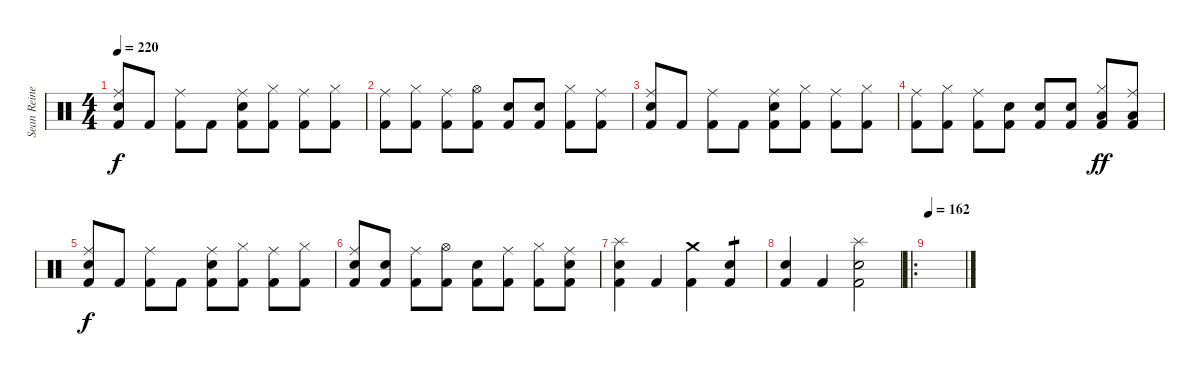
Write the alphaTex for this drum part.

\track ("Sean Reinert" "Sean Reine") {instrument percussion}
\staff {score}
\articulation defaults
\ts (4 4)
\tempo 220
\clef neutral
\ks c
("Kick (hit) 2" "Ride (middle)" "Electric Snare (hit)").8{dy f} "Kick (hit) 2".8 ("Kick (hit) 2" "Ride (middle)").8 "Kick (hit) 2".8 ("Kick (hit) 2" "Ride (middle)" "Electric Snare (hit)").8 ("Kick (hit) 2" "Hi-Hat (closed)").8 ("Kick (hit) 2" "Ride (middle)").8 ("Kick (hit) 2" "Hi-Hat (closed)").8 |
("Kick (hit) 2" "Ride (middle)").8 ("Kick (hit) 2" "Hi-Hat (closed)").8 ("Kick (hit) 2" "Ride (middle)").8 ("Kick (hit) 2" "Hi-Hat (open)").8 ("Kick (hit) 2" "Electric Snare (hit)").8 ("Kick (hit) 2" "Electric Snare (hit)").8 ("Kick (hit) 2" "Hi-Hat (closed)").8 ("Kick (hit) 2" "Ride (middle)").8 |
("Kick (hit) 2" "Ride (middle)" "Electric Snare (hit)").8 "Kick (hit) 2".8 ("Kick (hit) 2" "Ride (middle)").8 "Kick (hit) 2".8 ("Kick (hit) 2" "Ride (middle)" "Electric Snare (hit)").8 ("Kick (hit) 2" "Hi-Hat (closed)").8 ("Kick (hit) 2" "Ride (middle)").8 ("Kick (hit) 2" "Hi-Hat (closed)").8 |
("Kick (hit) 2" "Ride (middle)").8 ("Kick (hit) 2" "Hi-Hat (closed)").8 ("Kick (hit) 2" "Ride (middle)").8 ("Kick (hit) 2" "Electric Snare (hit)").8 ("Kick (hit) 2" "Electric Snare (hit)").8 ("Kick (hit) 2" "Electric Snare (hit)").8 ("Kick (hit) 2" "Hi-Hat (closed)" "Low Tom (hit)").8{dy ff} ("Kick (hit) 2" "Ride (middle)" "Low Tom (hit)").8 |
("Kick (hit) 2" "Ride (middle)" "Electric Snare (hit)").8{dy f} "Kick (hit) 2".8 ("Kick (hit) 2" "Ride (middle)").8 "Kick (hit) 2".8 ("Kick (hit) 2" "Ride (middle)" "Electric Snare (hit)").8 ("Kick (hit) 2" "Hi-Hat (closed)").8 ("Kick (hit) 2" "Ride (middle)").8 ("Kick (hit) 2" "Hi-Hat (closed)").8 |
("Kick (hit) 2" "Electric Snare (hit)" "Ride (middle)").8 ("Kick (hit) 2" "Electric Snare (hit)").8 ("Kick (hit) 2" "Ride (middle)").8 ("Kick (hit) 2" "Hi-Hat (open)").8 ("Kick (hit) 2" "Electric Snare (hit)").8 ("Kick (hit) 2" "Ride (middle)").8 ("Kick (hit) 2" "Hi-Hat (closed)").8 ("Kick (hit) 2" "Ride (middle)" "Electric Snare (hit)").8 |
("Kick (hit) 2" "Electric Snare (hit)" "Splash (hit)").4 "Kick (hit) 2".4 ("Kick (hit) 2" "Crash medium (hit)").4 ("Kick (hit) 2" "Electric Snare (hit)").4{tp 1} |
("Kick (hit) 2" "Electric Snare (hit)").4 "Kick (hit) 2".4 ("Kick (hit) 2" "Electric Snare (hit)" "Splash (hit)").2 |
\ro
\tempo 162
